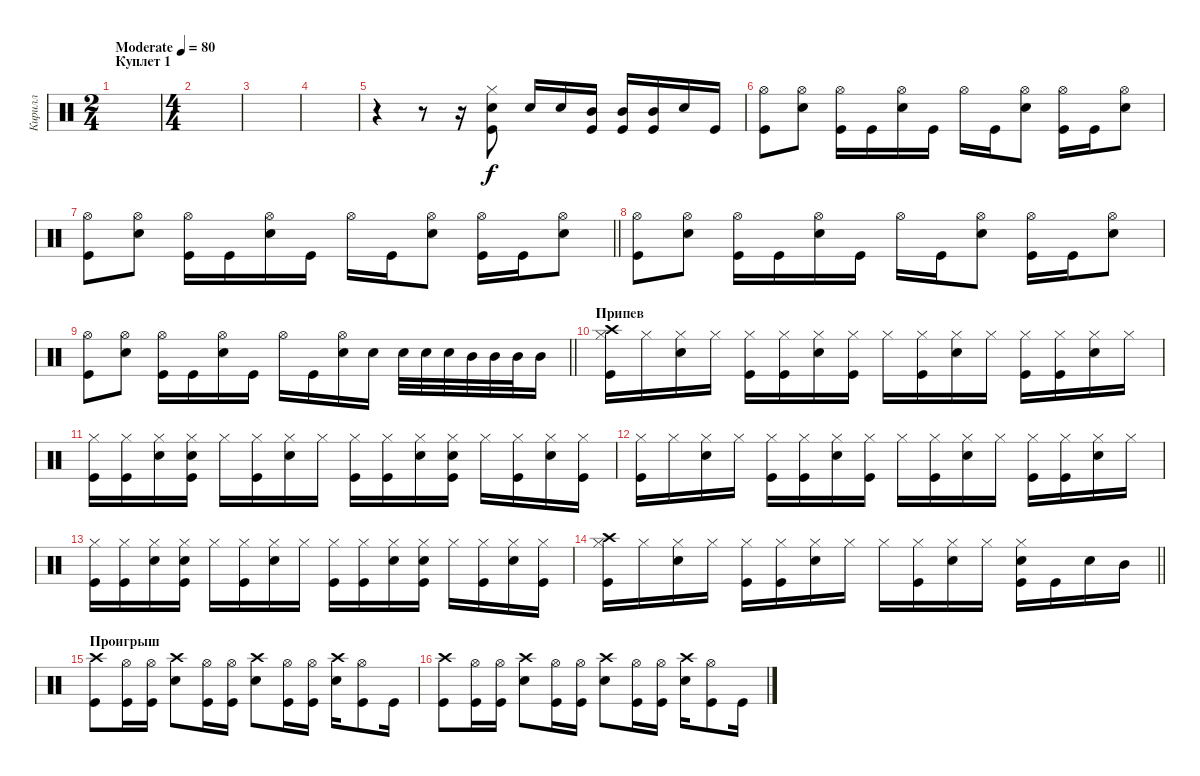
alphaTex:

\track ("Кирилл" "Кирилл") {instrument percussion}
\staff {score}
\articulation defaults
\ts (2 4)
\section ("" "Куплет 1")
\tempo (80 "Moderate")
\clef neutral
\ks c
|
\ts (4 4)
|
|
|
r.4 r.8 r.16 ("Hi-Hat (closed)" "Electric Snare (hit)" "Kick (hit)").8 "Electric Snare (hit)".16 "Electric Snare (hit)".16 ("Mid Tom (hit)" "Kick (hit)").16 ("Mid Tom (hit)" "Kick (hit)").16 ("Mid Tom (hit)" "Kick (hit)").16 "Electric Snare (hit)".16 "Kick (hit)".16 |
("Hi-Hat (open)" "Kick (hit)").8 ("Hi-Hat (open)" "Electric Snare (hit)").8 ("Hi-Hat (open)" "Kick (hit)").16 "Kick (hit)".16 ("Hi-Hat (open)" "Electric Snare (hit)").16 "Kick (hit)".16 "Hi-Hat (open)".16 "Kick (hit)".16 ("Hi-Hat (open)" "Electric Snare (hit)").8 ("Hi-Hat (open)" "Kick (hit)").16 "Kick (hit)".16 ("Hi-Hat (open)" "Electric Snare (hit)").8 |
\barLineRight lightlight
("Hi-Hat (open)" "Kick (hit)").8 ("Hi-Hat (open)" "Electric Snare (hit)").8 ("Hi-Hat (open)" "Kick (hit)").16 "Kick (hit)".16 ("Hi-Hat (open)" "Electric Snare (hit)").16 "Kick (hit)".16 "Hi-Hat (open)".16 "Kick (hit)".16 ("Hi-Hat (open)" "Electric Snare (hit)").8 ("Hi-Hat (open)" "Kick (hit)").16 "Kick (hit)".16 ("Hi-Hat (open)" "Electric Snare (hit)").8 |
("Hi-Hat (open)" "Kick (hit)").8 ("Hi-Hat (open)" "Electric Snare (hit)").8 ("Hi-Hat (open)" "Kick (hit)").16 "Kick (hit)".16 ("Hi-Hat (open)" "Electric Snare (hit)").16 "Kick (hit)".16 "Hi-Hat (open)".16 "Kick (hit)".16 ("Hi-Hat (open)" "Electric Snare (hit)").8 ("Hi-Hat (open)" "Kick (hit)").16 "Kick (hit)".16 ("Hi-Hat (open)" "Electric Snare (hit)").8 |
\barLineRight lightlight
("Hi-Hat (open)" "Kick (hit)").8 ("Hi-Hat (open)" "Electric Snare (hit)").8 ("Hi-Hat (open)" "Kick (hit)").16 "Kick (hit)".16 ("Hi-Hat (open)" "Electric Snare (hit)").16 "Kick (hit)".16 "Hi-Hat (open)".16 "Kick (hit)".16 ("Hi-Hat (open)" "Electric Snare (hit)").16 "Electric Snare (hit)".16 "Electric Snare (hit)".32 "Electric Snare (hit)".32 "Electric Snare (hit)".32 "Mid Tom (hit)".32 "Mid Tom (hit)".32 "Mid Tom (hit)".32 "Mid Tom (hit)".16 |
\section ("" "Припев")
("Hi-Hat (closed)" "Crash high (hit)" "Kick (hit)").16 "Hi-Hat (closed)".16 ("Hi-Hat (closed)" "Electric Snare (hit)").16 "Hi-Hat (closed)".16 ("Hi-Hat (closed)" "Kick (hit)").16 ("Hi-Hat (closed)" "Kick (hit)").16 ("Hi-Hat (closed)" "Electric Snare (hit)").16 ("Hi-Hat (closed)" "Kick (hit)").16 "Hi-Hat (closed)".16 ("Hi-Hat (closed)" "Kick (hit)").16 ("Hi-Hat (closed)" "Electric Snare (hit)").16 "Hi-Hat (closed)".16 ("Hi-Hat (closed)" "Kick (hit)").16 ("Hi-Hat (closed)" "Kick (hit)").16 ("Hi-Hat (closed)" "Electric Snare (hit)").16 "Hi-Hat (closed)".16 |
("Hi-Hat (closed)" "Kick (hit)").16 ("Hi-Hat (closed)" "Kick (hit)").16 ("Hi-Hat (closed)" "Electric Snare (hit)").16 ("Hi-Hat (closed)" "Electric Snare (hit)" "Kick (hit)").16 "Hi-Hat (closed)".16 ("Hi-Hat (closed)" "Kick (hit)").16 ("Hi-Hat (closed)" "Electric Snare (hit)").16 "Hi-Hat (closed)".16 ("Hi-Hat (closed)" "Kick (hit)").16 ("Hi-Hat (closed)" "Kick (hit)").16 ("Hi-Hat (closed)" "Electric Snare (hit)").16 ("Hi-Hat (closed)" "Electric Snare (hit)" "Kick (hit)").16 "Hi-Hat (closed)".16 ("Hi-Hat (closed)" "Kick (hit)").16 ("Hi-Hat (closed)" "Electric Snare (hit)").16 ("Hi-Hat (closed)" "Kick (hit)").16 |
("Hi-Hat (closed)" "Kick (hit)").16 "Hi-Hat (closed)".16 ("Hi-Hat (closed)" "Electric Snare (hit)").16 "Hi-Hat (closed)".16 ("Hi-Hat (closed)" "Kick (hit)").16 ("Hi-Hat (closed)" "Kick (hit)").16 ("Hi-Hat (closed)" "Electric Snare (hit)").16 ("Hi-Hat (closed)" "Kick (hit)").16 "Hi-Hat (closed)".16 ("Hi-Hat (closed)" "Kick (hit)").16 ("Hi-Hat (closed)" "Electric Snare (hit)").16 "Hi-Hat (closed)".16 ("Hi-Hat (closed)" "Kick (hit)").16 ("Hi-Hat (closed)" "Kick (hit)").16 ("Hi-Hat (closed)" "Electric Snare (hit)").16 "Hi-Hat (closed)".16 |
("Hi-Hat (closed)" "Kick (hit)").16 ("Hi-Hat (closed)" "Kick (hit)").16 ("Hi-Hat (closed)" "Electric Snare (hit)").16 ("Hi-Hat (closed)" "Electric Snare (hit)" "Kick (hit)").16 "Hi-Hat (closed)".16 ("Hi-Hat (closed)" "Kick (hit)").16 ("Hi-Hat (closed)" "Electric Snare (hit)").16 "Hi-Hat (closed)".16 ("Hi-Hat (closed)" "Kick (hit)").16 ("Hi-Hat (closed)" "Kick (hit)").16 ("Hi-Hat (closed)" "Electric Snare (hit)").16 ("Hi-Hat (closed)" "Electric Snare (hit)" "Kick (hit)").16 "Hi-Hat (closed)".16 ("Hi-Hat (closed)" "Kick (hit)").16 ("Hi-Hat (closed)" "Electric Snare (hit)").16 ("Hi-Hat (closed)" "Kick (hit)").16 |
\barLineRight lightlight
("Hi-Hat (closed)" "Crash high (hit)" "Kick (hit)").16 "Hi-Hat (closed)".16 ("Hi-Hat (closed)" "Electric Snare (hit)").16 "Hi-Hat (closed)".16 ("Hi-Hat (closed)" "Kick (hit)").16 ("Hi-Hat (closed)" "Kick (hit)").16 ("Hi-Hat (closed)" "Electric Snare (hit)").16 "Hi-Hat (closed)".16 "Hi-Hat (closed)".16 ("Hi-Hat (closed)" "Kick (hit)").16 ("Hi-Hat (closed)" "Electric Snare (hit)").16 "Hi-Hat (closed)".16 ("Hi-Hat (closed)" "Electric Snare (hit)" "Kick (hit)").16 "Kick (hit)".16 "Electric Snare (hit)".16 "Mid Tom (hit)".16 |
\section ("" "Проигрыш")
("Crash high (hit)" "Kick (hit)").8 ("Hi-Hat (open)" "Kick (hit)").16 ("Hi-Hat (open)" "Kick (hit)").16 ("Crash high (hit)" "Electric Snare (hit)").8 ("Hi-Hat (open)" "Kick (hit)").16 ("Hi-Hat (open)" "Kick (hit)").16 ("Crash high (hit)" "Electric Snare (hit)").8 ("Hi-Hat (open)" "Kick (hit)").16 ("Hi-Hat (open)" "Kick (hit)").16 ("Crash high (hit)" "Electric Snare (hit)").16 ("Hi-Hat (open)" "Kick (hit)").8 "Kick (hit)".16 |
("Crash high (hit)" "Kick (hit)").8 ("Hi-Hat (open)" "Kick (hit)").16 ("Hi-Hat (open)" "Kick (hit)").16 ("Crash high (hit)" "Electric Snare (hit)").8 ("Hi-Hat (open)" "Kick (hit)").16 ("Hi-Hat (open)" "Kick (hit)").16 ("Crash high (hit)" "Electric Snare (hit)").8 ("Hi-Hat (open)" "Kick (hit)").16 ("Hi-Hat (open)" "Kick (hit)").16 ("Crash high (hit)" "Electric Snare (hit)").16 ("Hi-Hat (open)" "Kick (hit)").8 "Kick (hit)".16
